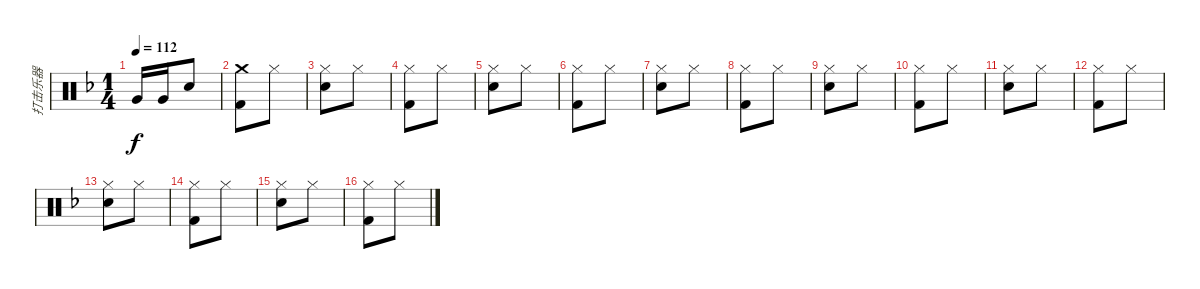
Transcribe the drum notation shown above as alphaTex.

\track ("打击乐器" "打击乐器") {instrument percussion}
\staff {score}
\articulation defaults
\ts (1 4)
\tempo 112
\clef neutral
\ks f "Very Low Tom (hit)".16{dy f} "Very Low Tom (hit)".16 "Snare (hit) 2".8
|
("Crash medium (hit)" "Kick (hit) 2").8 "Hi-Hat (closed)".8 |
("Hi-Hat (closed)" "Snare (hit) 2").8 "Hi-Hat (closed)".8 |
("Hi-Hat (closed)" "Kick (hit) 2").8 "Hi-Hat (closed)".8 |
("Hi-Hat (closed)" "Snare (hit) 2").8 "Hi-Hat (closed)".8 |
("Hi-Hat (closed)" "Kick (hit) 2").8 "Hi-Hat (closed)".8 |
("Hi-Hat (closed)" "Snare (hit) 2").8 "Hi-Hat (closed)".8 |
("Hi-Hat (closed)" "Kick (hit) 2").8 "Hi-Hat (closed)".8 |
("Hi-Hat (closed)" "Snare (hit) 2").8 "Hi-Hat (closed)".8 |
("Hi-Hat (closed)" "Kick (hit) 2").8 "Hi-Hat (closed)".8 |
("Hi-Hat (closed)" "Snare (hit) 2").8 "Hi-Hat (closed)".8 |
("Hi-Hat (closed)" "Kick (hit) 2").8 "Hi-Hat (closed)".8 |
("Hi-Hat (closed)" "Snare (hit) 2").8 "Hi-Hat (closed)".8 |
("Hi-Hat (closed)" "Kick (hit) 2").8 "Hi-Hat (closed)".8 |
("Hi-Hat (closed)" "Snare (hit) 2").8 "Hi-Hat (closed)".8 |
("Hi-Hat (closed)" "Kick (hit) 2").8 "Hi-Hat (closed)".8
